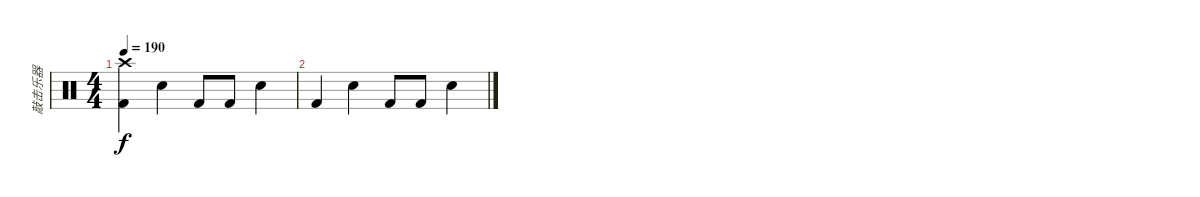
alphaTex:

\track ("敲击乐器" "敲击乐器") {instrument percussion}
\staff {score}
\articulation defaults
\ts (4 4)
\tempo 190
\clef neutral
\ks c
("Kick (hit) 2" "Crash high (hit)").4{dy f} "Snare (hit) 2".4 "Kick (hit) 2".8 "Kick (hit) 2".8 "Snare (hit) 2".4 |
"Kick (hit) 2".4 "Snare (hit) 2".4 "Kick (hit) 2".8 "Kick (hit) 2".8 "Snare (hit) 2".4
